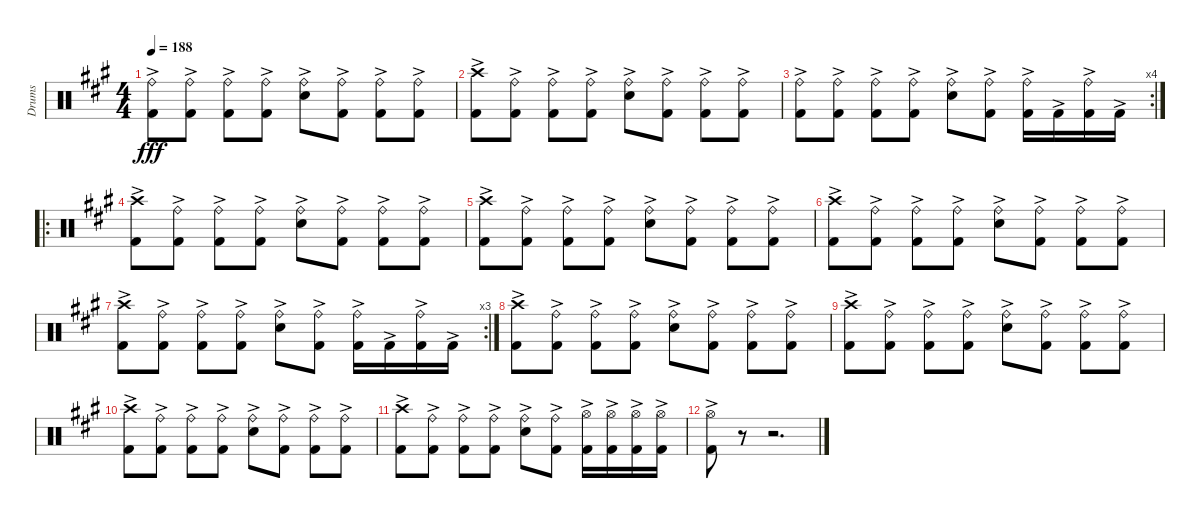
\track ("Drums" "Drums") {instrument percussion}
\staff {score}
\articulation defaults
\ts (4 4)
\tempo 188
\clef neutral
\ks f#minor
("Ride (bell)"{ac} "Kick (hit) 2"{ac}).8{dy fff} ("Ride (bell)"{ac} "Kick (hit) 2"{ac}).8 ("Ride (bell)"{ac} "Kick (hit) 2"{ac}).8 ("Ride (bell)"{ac} "Kick (hit) 2"{ac}).8 ("Ride (bell)"{ac} "Snare (hit) 2").8 ("Ride (bell)"{ac} "Kick (hit) 2"{ac}).8 ("Ride (bell)"{ac} "Kick (hit) 2"{ac}).8 ("Ride (bell)"{ac} "Kick (hit) 2"{ac}).8 |
("Crash high (hit)" "Kick (hit) 2"{ac}).8 ("Ride (bell)"{ac} "Kick (hit) 2"{ac}).8 ("Ride (bell)"{ac} "Kick (hit) 2"{ac}).8 ("Ride (bell)"{ac} "Kick (hit) 2"{ac}).8 ("Ride (bell)"{ac} "Snare (hit) 2").8 ("Ride (bell)"{ac} "Kick (hit) 2"{ac}).8 ("Ride (bell)"{ac} "Kick (hit) 2"{ac}).8 ("Ride (bell)"{ac} "Kick (hit) 2"{ac}).8 |
\rc 4
("Ride (bell)"{ac} "Kick (hit) 2"{ac}).8 ("Ride (bell)"{ac} "Kick (hit) 2"{ac}).8 ("Ride (bell)"{ac} "Kick (hit) 2"{ac}).8 ("Ride (bell)"{ac} "Kick (hit) 2"{ac}).8 ("Ride (bell)"{ac} "Snare (hit) 2").8 ("Ride (bell)"{ac} "Kick (hit) 2"{ac}).8 ("Ride (bell)"{ac} "Kick (hit) 2"{ac}).16 "Kick (hit) 2"{ac}.16 ("Ride (bell)"{ac} "Kick (hit) 2"{ac}).16 "Kick (hit) 2"{ac}.16 |
\ro
("Crash high (hit)" "Kick (hit) 2"{ac}).8 ("Ride (bell)"{ac} "Kick (hit) 2"{ac}).8 ("Ride (bell)"{ac} "Kick (hit) 2"{ac}).8 ("Ride (bell)"{ac} "Kick (hit) 2"{ac}).8 ("Ride (bell)"{ac} "Snare (hit) 2").8 ("Ride (bell)"{ac} "Kick (hit) 2"{ac}).8 ("Ride (bell)"{ac} "Kick (hit) 2"{ac}).8 ("Ride (bell)"{ac} "Kick (hit) 2"{ac}).8 |
("Crash high (hit)"{ac} "Kick (hit) 2"{ac}).8 ("Ride (bell)"{ac} "Kick (hit) 2"{ac}).8 ("Ride (bell)"{ac} "Kick (hit) 2"{ac}).8 ("Ride (bell)"{ac} "Kick (hit) 2"{ac}).8 ("Ride (bell)"{ac} "Snare (hit) 2").8 ("Ride (bell)"{ac} "Kick (hit) 2"{ac}).8 ("Ride (bell)"{ac} "Kick (hit) 2"{ac}).8 ("Ride (bell)"{ac} "Kick (hit) 2"{ac}).8 |
("Crash high (hit)" "Kick (hit) 2"{ac}).8 ("Ride (bell)"{ac} "Kick (hit) 2"{ac}).8 ("Ride (bell)"{ac} "Kick (hit) 2"{ac}).8 ("Ride (bell)"{ac} "Kick (hit) 2"{ac}).8 ("Ride (bell)"{ac} "Snare (hit) 2").8 ("Ride (bell)"{ac} "Kick (hit) 2"{ac}).8 ("Ride (bell)"{ac} "Kick (hit) 2"{ac}).8 ("Ride (bell)"{ac} "Kick (hit) 2"{ac}).8 |
\rc 3
("Crash high (hit)"{ac} "Kick (hit) 2"{ac}).8 ("Ride (bell)"{ac} "Kick (hit) 2"{ac}).8 ("Ride (bell)"{ac} "Kick (hit) 2"{ac}).8 ("Ride (bell)"{ac} "Kick (hit) 2"{ac}).8 ("Ride (bell)"{ac} "Snare (hit) 2").8 ("Ride (bell)"{ac} "Kick (hit) 2"{ac}).8 ("Ride (bell)"{ac} "Kick (hit) 2"{ac}).16 "Kick (hit) 2"{ac}.16 ("Ride (bell)"{ac} "Kick (hit) 2"{ac}).16 "Kick (hit) 2"{ac}.16 |
("Crash high (hit)" "Kick (hit) 2"{ac}).8 ("Ride (bell)"{ac} "Kick (hit) 2"{ac}).8 ("Ride (bell)"{ac} "Kick (hit) 2"{ac}).8 ("Ride (bell)"{ac} "Kick (hit) 2"{ac}).8 ("Ride (bell)"{ac} "Snare (hit) 2").8 ("Ride (bell)"{ac} "Kick (hit) 2"{ac}).8 ("Ride (bell)"{ac} "Kick (hit) 2"{ac}).8 ("Ride (bell)"{ac} "Kick (hit) 2"{ac}).8 |
("Crash high (hit)"{ac} "Kick (hit) 2"{ac}).8 ("Ride (bell)"{ac} "Kick (hit) 2"{ac}).8 ("Ride (bell)"{ac} "Kick (hit) 2"{ac}).8 ("Ride (bell)"{ac} "Kick (hit) 2"{ac}).8 ("Ride (bell)"{ac} "Snare (hit) 2").8 ("Ride (bell)"{ac} "Kick (hit) 2"{ac}).8 ("Ride (bell)"{ac} "Kick (hit) 2"{ac}).8 ("Ride (bell)"{ac} "Kick (hit) 2"{ac}).8 |
("Crash high (hit)" "Kick (hit) 2"{ac}).8 ("Ride (bell)"{ac} "Kick (hit) 2"{ac}).8 ("Ride (bell)"{ac} "Kick (hit) 2"{ac}).8 ("Ride (bell)"{ac} "Kick (hit) 2"{ac}).8 ("Ride (bell)"{ac} "Snare (hit) 2").8 ("Ride (bell)"{ac} "Kick (hit) 2"{ac}).8 ("Ride (bell)"{ac} "Kick (hit) 2"{ac}).8 ("Ride (bell)"{ac} "Kick (hit) 2"{ac}).8 |
("Crash high (hit)"{ac} "Kick (hit) 2"{ac}).8 ("Ride (bell)"{ac} "Kick (hit) 2"{ac}).8 ("Ride (bell)"{ac} "Kick (hit) 2"{ac}).8 ("Ride (bell)"{ac} "Kick (hit) 2"{ac}).8 ("Ride (bell)"{ac} "Snare (hit) 2").8 ("Ride (bell)"{ac} "Kick (hit) 2"{ac}).8 ("Hi-Hat (open)" "Kick (hit) 2"{ac}).16 ("Hi-Hat (open)" "Kick (hit) 2"{ac}).16 ("Hi-Hat (open)" "Kick (hit) 2"{ac}).16 ("Hi-Hat (open)" "Kick (hit) 2"{ac}).16 |
("Hi-Hat (open)" "Kick (hit) 2"{ac}).8 r.8 r.2{d}
